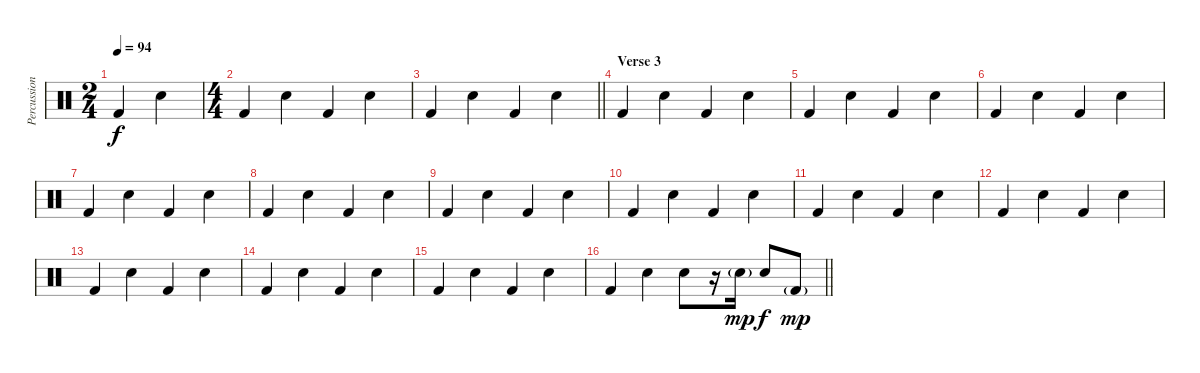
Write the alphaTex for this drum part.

\track ("Percussion" "Percussion") {instrument percussion}
\staff {score}
\articulation defaults
\ts (2 4)
\tempo 94
\clef neutral
\ks c "Kick (hit) 2".4{dy f} "Snare (hit) 2".4
|
\ts (4 4)
"Kick (hit) 2".4 "Snare (hit) 2".4 "Kick (hit) 2".4 "Snare (hit) 2".4 |
\barLineRight lightlight "Kick (hit) 2".4 "Snare (hit) 2".4 "Kick (hit) 2".4 "Snare (hit) 2".4
|
\section ("" "Verse 3")
"Kick (hit) 2".4 "Snare (hit) 2".4 "Kick (hit) 2".4 "Snare (hit) 2".4 |
"Kick (hit) 2".4 "Snare (hit) 2".4 "Kick (hit) 2".4 "Snare (hit) 2".4 |
"Kick (hit) 2".4 "Snare (hit) 2".4 "Kick (hit) 2".4 "Snare (hit) 2".4 |
"Kick (hit) 2".4 "Snare (hit) 2".4 "Kick (hit) 2".4 "Snare (hit) 2".4 |
"Kick (hit) 2".4 "Snare (hit) 2".4 "Kick (hit) 2".4 "Snare (hit) 2".4 |
"Kick (hit) 2".4 "Snare (hit) 2".4 "Kick (hit) 2".4 "Snare (hit) 2".4 |
"Kick (hit) 2".4 "Snare (hit) 2".4 "Kick (hit) 2".4 "Snare (hit) 2".4 |
"Kick (hit) 2".4 "Snare (hit) 2".4 "Kick (hit) 2".4 "Snare (hit) 2".4 |
"Kick (hit) 2".4 "Snare (hit) 2".4 "Kick (hit) 2".4 "Snare (hit) 2".4 |
"Kick (hit) 2".4 "Snare (hit) 2".4 "Kick (hit) 2".4 "Snare (hit) 2".4 |
"Kick (hit) 2".4 "Snare (hit) 2".4 "Kick (hit) 2".4 "Snare (hit) 2".4 |
"Kick (hit) 2".4 "Snare (hit) 2".4 "Kick (hit) 2".4 "Snare (hit) 2".4 |
\barLineRight lightlight "Kick (hit) 2".4 "Snare (hit) 2".4 "Snare (hit) 2".8
r.16 "Snare (hit) 2"{g}.16{dy mp} "Snare (hit) 2".8{dy f} "Kick (hit) 2"{g}.8{dy mp}
